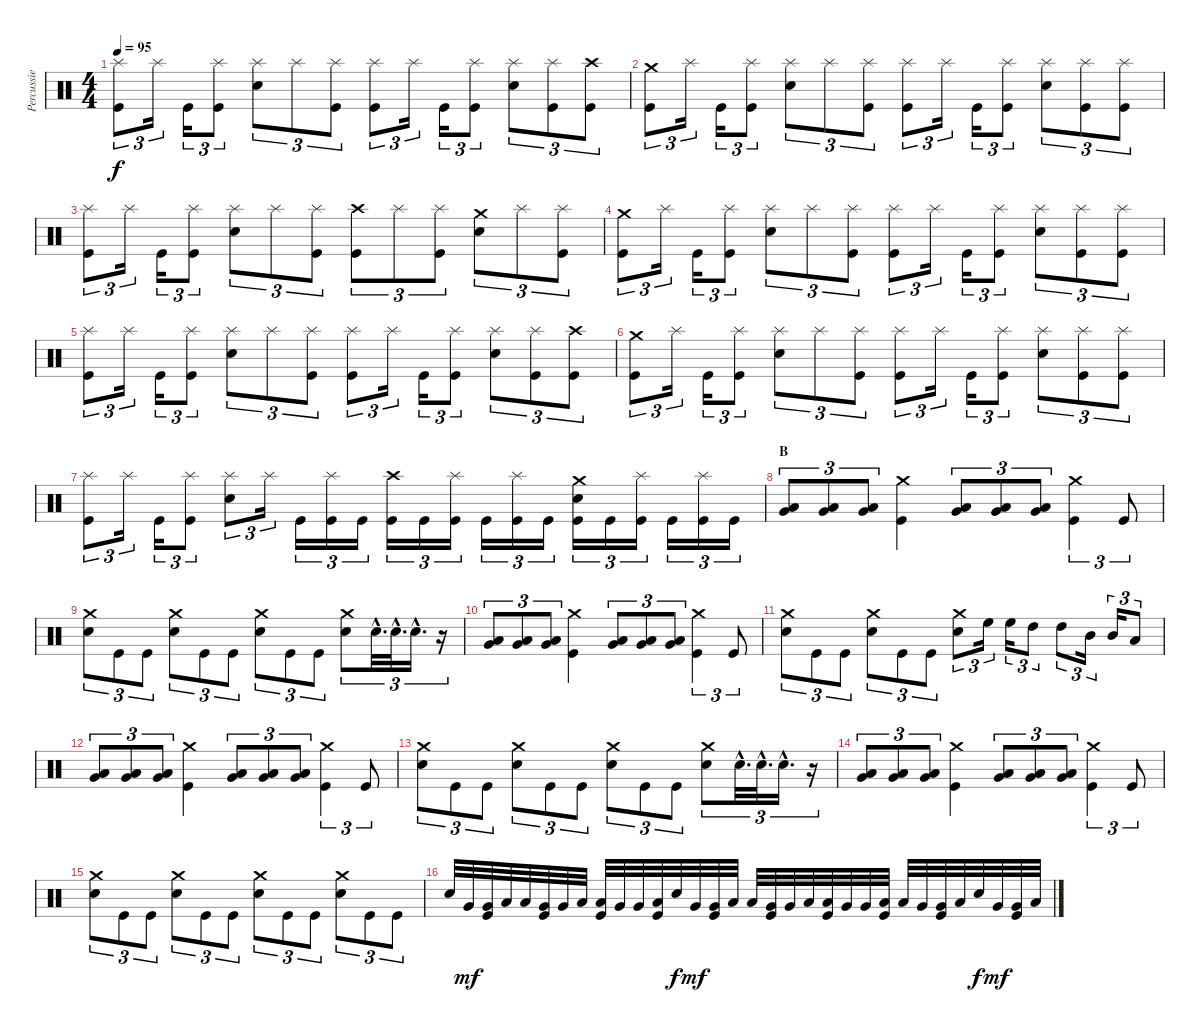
\track ("Percussie" "Percussie") {instrument percussion}
\staff {score}
\articulation defaults
\ts (4 4)
\tempo 95
\clef neutral
\ks c
("Splash (hit)" "Kick (hit)").8{tu (3 2) dy f} "Splash (hit)".16{tu (3 2)} "Kick (hit)".16{tu (3 2)} ("Splash (hit)" "Kick (hit)").8{tu (3 2)} ("Splash (hit)" "Electric Snare (hit)").8{tu (3 2)} "Splash (hit)".8{tu (3 2)} ("Splash (hit)" "Kick (hit)").8{tu (3 2)} ("Splash (hit)" "Kick (hit)").8{tu (3 2)} "Splash (hit)".16{tu (3 2)} "Kick (hit)".16{tu (3 2)} ("Splash (hit)" "Kick (hit)").8{tu (3 2)} ("Splash (hit)" "Electric Snare (hit)").8{tu (3 2)} ("Splash (hit)" "Kick (hit)").8{tu (3 2)} ("Crash high (hit)" "Kick (hit)").8{tu (3 2)} |
("Crash medium (hit)" "Kick (hit)").8{tu (3 2)} "Splash (hit)".16{tu (3 2)} "Kick (hit)".16{tu (3 2)} ("Splash (hit)" "Kick (hit)").8{tu (3 2)} ("Splash (hit)" "Electric Snare (hit)").8{tu (3 2)} "Splash (hit)".8{tu (3 2)} ("Splash (hit)" "Kick (hit)").8{tu (3 2)} ("Splash (hit)" "Kick (hit)").8{tu (3 2)} "Splash (hit)".16{tu (3 2)} "Kick (hit)".16{tu (3 2)} ("Splash (hit)" "Kick (hit)").8{tu (3 2)} ("Splash (hit)" "Electric Snare (hit)").8{tu (3 2)} ("Splash (hit)" "Kick (hit)").8{tu (3 2)} ("Splash (hit)" "Kick (hit)").8{tu (3 2)} |
("Splash (hit)" "Kick (hit)").8{tu (3 2)} "Splash (hit)".16{tu (3 2)} "Kick (hit)".16{tu (3 2)} ("Splash (hit)" "Kick (hit)").8{tu (3 2)} ("Splash (hit)" "Electric Snare (hit)").8{tu (3 2)} "Splash (hit)".8{tu (3 2)} ("Splash (hit)" "Kick (hit)").8{tu (3 2)} ("Crash high (hit)" "Kick (hit)").8{tu (3 2)} "Splash (hit)".8{tu (3 2)} ("Splash (hit)" "Kick (hit)").8{tu (3 2)} ("Crash medium (hit)" "Electric Snare (hit)").8{tu (3 2)} "Splash (hit)".8{tu (3 2)} ("Splash (hit)" "Kick (hit)").8{tu (3 2)} |
("Crash medium (hit)" "Kick (hit)").8{tu (3 2)} "Splash (hit)".16{tu (3 2)} "Kick (hit)".16{tu (3 2)} ("Splash (hit)" "Kick (hit)").8{tu (3 2)} ("Splash (hit)" "Electric Snare (hit)").8{tu (3 2)} "Splash (hit)".8{tu (3 2)} ("Splash (hit)" "Kick (hit)").8{tu (3 2)} ("Splash (hit)" "Kick (hit)").8{tu (3 2)} "Splash (hit)".16{tu (3 2)} "Kick (hit)".16{tu (3 2)} ("Splash (hit)" "Kick (hit)").8{tu (3 2)} ("Splash (hit)" "Electric Snare (hit)").8{tu (3 2)} ("Splash (hit)" "Kick (hit)").8{tu (3 2)} ("Splash (hit)" "Kick (hit)").8{tu (3 2)} |
("Splash (hit)" "Kick (hit)").8{tu (3 2)} "Splash (hit)".16{tu (3 2)} "Kick (hit)".16{tu (3 2)} ("Splash (hit)" "Kick (hit)").8{tu (3 2)} ("Splash (hit)" "Electric Snare (hit)").8{tu (3 2)} "Splash (hit)".8{tu (3 2)} ("Splash (hit)" "Kick (hit)").8{tu (3 2)} ("Splash (hit)" "Kick (hit)").8{tu (3 2)} "Splash (hit)".16{tu (3 2)} "Kick (hit)".16{tu (3 2)} ("Splash (hit)" "Kick (hit)").8{tu (3 2)} ("Splash (hit)" "Electric Snare (hit)").8{tu (3 2)} ("Splash (hit)" "Kick (hit)").8{tu (3 2)} ("Crash high (hit)" "Kick (hit)").8{tu (3 2)} |
("Crash medium (hit)" "Kick (hit)").8{tu (3 2)} "Splash (hit)".16{tu (3 2)} "Kick (hit)".16{tu (3 2)} ("Splash (hit)" "Kick (hit)").8{tu (3 2)} ("Splash (hit)" "Electric Snare (hit)").8{tu (3 2)} "Splash (hit)".8{tu (3 2)} ("Splash (hit)" "Kick (hit)").8{tu (3 2)} ("Splash (hit)" "Kick (hit)").8{tu (3 2)} "Splash (hit)".16{tu (3 2)} "Kick (hit)".16{tu (3 2)} ("Splash (hit)" "Kick (hit)").8{tu (3 2)} ("Splash (hit)" "Electric Snare (hit)").8{tu (3 2)} ("Splash (hit)" "Kick (hit)").8{tu (3 2)} ("Splash (hit)" "Kick (hit)").8{tu (3 2)} |
("Splash (hit)" "Kick (hit)").8{tu (3 2)} "Splash (hit)".16{tu (3 2)} "Kick (hit)".16{tu (3 2)} ("Splash (hit)" "Kick (hit)").8{tu (3 2)} ("Splash (hit)" "Electric Snare (hit)").8{tu (3 2)} "Splash (hit)".16{tu (3 2)} "Kick (hit)".16{tu (3 2)} ("Splash (hit)" "Kick (hit)").16{tu (3 2)} "Kick (hit)".16{tu (3 2)} ("Crash high (hit)" "Kick (hit)").16{tu (3 2)} "Kick (hit)".16{tu (3 2)} ("Splash (hit)" "Kick (hit)").16{tu (3 2)} "Kick (hit)".16{tu (3 2)} ("Splash (hit)" "Kick (hit)").16{tu (3 2)} "Kick (hit)".16{tu (3 2)} ("Crash medium (hit)" "Electric Snare (hit)" "Kick (hit)").16{tu (3 2)} "Kick (hit)".16{tu (3 2)} ("Splash (hit)" "Kick (hit)").16{tu (3 2)} "Kick (hit)".16{tu (3 2)} ("Splash (hit)" "Kick (hit)").16{tu (3 2)} "Kick (hit)".16{tu (3 2)} |
\section ("" "B")
("Very Low Tom (hit)" "Low Floor Tom (hit)").8{tu (3 2)} ("Very Low Tom (hit)" "Low Floor Tom (hit)").8{tu (3 2)} ("Very Low Tom (hit)" "Low Floor Tom (hit)").8{tu (3 2)} ("Crash medium (hit)" "Kick (hit)").4 ("Very Low Tom (hit)" "Low Floor Tom (hit)").8{tu (3 2)} ("Very Low Tom (hit)" "Low Floor Tom (hit)").8{tu (3 2)} ("Very Low Tom (hit)" "Low Floor Tom (hit)").8{tu (3 2)} ("Crash medium (hit)" "Kick (hit)").4{tu (3 2)} "Kick (hit)".8{tu (3 2)} |
("Crash medium (hit)" "Electric Snare (hit)").8{tu (3 2)} "Kick (hit)".8{tu (3 2)} "Kick (hit)".8{tu (3 2)} ("Crash medium (hit)" "Electric Snare (hit)").8{tu (3 2)} "Kick (hit)".8{tu (3 2)} "Kick (hit)".8{tu (3 2)} ("Crash medium (hit)" "Electric Snare (hit)").8{tu (3 2)} "Kick (hit)".8{tu (3 2)} "Kick (hit)".8{tu (3 2)} ("Crash medium (hit)" "Electric Snare (hit)").8{tu (3 2)} "Electric Snare (hit)"{hac}.32{d tu (3 2)} "Electric Snare (hit)"{hac}.32{d tu (3 2)} "Electric Snare (hit)"{hac}.16{d tu (3 2)} r.16{tu (3 2)} |
("Very Low Tom (hit)" "Low Floor Tom (hit)").8{tu (3 2)} ("Very Low Tom (hit)" "Low Floor Tom (hit)").8{tu (3 2)} ("Very Low Tom (hit)" "Low Floor Tom (hit)").8{tu (3 2)} ("Crash medium (hit)" "Kick (hit)").4 ("Very Low Tom (hit)" "Low Floor Tom (hit)").8{tu (3 2)} ("Very Low Tom (hit)" "Low Floor Tom (hit)").8{tu (3 2)} ("Very Low Tom (hit)" "Low Floor Tom (hit)").8{tu (3 2)} ("Crash medium (hit)" "Kick (hit)").4{tu (3 2)} "Kick (hit)".8{tu (3 2)} |
("Crash medium (hit)" "Electric Snare (hit)").8{tu (3 2)} "Kick (hit)".8{tu (3 2)} "Kick (hit)".8{tu (3 2)} ("Crash medium (hit)" "Electric Snare (hit)").8{tu (3 2)} "Kick (hit)".8{tu (3 2)} "Kick (hit)".8{tu (3 2)} ("Crash medium (hit)" "Electric Snare (hit)").8{tu (3 2)} "High Floor Tom (hit)".16{tu (3 2)} "High Floor Tom (hit)".16{tu (3 2)} "High Tom (hit)".8{tu (3 2)} "High Tom (hit)".8{tu (3 2)} "Mid Tom (hit)".16{tu (3 2)} "Mid Tom (hit)".16{tu (3 2)} "Low Tom (hit)".8{tu (3 2)} |
("Very Low Tom (hit)" "Low Floor Tom (hit)").8{tu (3 2)} ("Very Low Tom (hit)" "Low Floor Tom (hit)").8{tu (3 2)} ("Very Low Tom (hit)" "Low Floor Tom (hit)").8{tu (3 2)} ("Crash medium (hit)" "Kick (hit)").4 ("Very Low Tom (hit)" "Low Floor Tom (hit)").8{tu (3 2)} ("Very Low Tom (hit)" "Low Floor Tom (hit)").8{tu (3 2)} ("Very Low Tom (hit)" "Low Floor Tom (hit)").8{tu (3 2)} ("Crash medium (hit)" "Kick (hit)").4{tu (3 2)} "Kick (hit)".8{tu (3 2)} |
("Crash medium (hit)" "Electric Snare (hit)").8{tu (3 2)} "Kick (hit)".8{tu (3 2)} "Kick (hit)".8{tu (3 2)} ("Crash medium (hit)" "Electric Snare (hit)").8{tu (3 2)} "Kick (hit)".8{tu (3 2)} "Kick (hit)".8{tu (3 2)} ("Crash medium (hit)" "Electric Snare (hit)").8{tu (3 2)} "Kick (hit)".8{tu (3 2)} "Kick (hit)".8{tu (3 2)} ("Crash medium (hit)" "Electric Snare (hit)").8{tu (3 2)} "Electric Snare (hit)"{hac}.32{d tu (3 2)} "Electric Snare (hit)"{hac}.32{d tu (3 2)} "Electric Snare (hit)"{hac}.16{d tu (3 2)} r.16{tu (3 2)} |
("Very Low Tom (hit)" "Low Floor Tom (hit)").8{tu (3 2)} ("Very Low Tom (hit)" "Low Floor Tom (hit)").8{tu (3 2)} ("Very Low Tom (hit)" "Low Floor Tom (hit)").8{tu (3 2)} ("Crash medium (hit)" "Kick (hit)").4 ("Very Low Tom (hit)" "Low Floor Tom (hit)").8{tu (3 2)} ("Very Low Tom (hit)" "Low Floor Tom (hit)").8{tu (3 2)} ("Very Low Tom (hit)" "Low Floor Tom (hit)").8{tu (3 2)} ("Crash medium (hit)" "Kick (hit)").4{tu (3 2)} "Kick (hit)".8{tu (3 2)} |
("Crash medium (hit)" "Electric Snare (hit)").8{tu (3 2)} "Kick (hit)".8{tu (3 2)} "Kick (hit)".8{tu (3 2)} ("Crash medium (hit)" "Electric Snare (hit)").8{tu (3 2)} "Kick (hit)".8{tu (3 2)} "Kick (hit)".8{tu (3 2)} ("Crash medium (hit)" "Electric Snare (hit)").8{tu (3 2)} "Kick (hit)".8{tu (3 2)} "Kick (hit)".8{tu (3 2)} ("Crash medium (hit)" "Electric Snare (hit)").8{tu (3 2)} "Kick (hit)".8{tu (3 2)} "Kick (hit)".8{tu (3 2)} |
"Electric Snare (hit)"{tr (40 64)}.32 "Very Low Tom (hit)".32{dy mf} ("Kick (hit)" "Very Low Tom (hit)").32 "Low Floor Tom (hit)".32 "Low Floor Tom (hit)".32 ("Kick (hit)" "Very Low Tom (hit)").32 "Very Low Tom (hit)".32 "Low Floor Tom (hit)".32 ("Kick (hit)" "Low Floor Tom (hit)").32 "Very Low Tom (hit)".32 "Very Low Tom (hit)".32 ("Kick (hit)" "Low Floor Tom (hit)").32 "Electric Snare (hit)"{tr (40 64)}.32{dy f} "Very Low Tom (hit)".32{dy mf} ("Kick (hit)" "Very Low Tom (hit)").32 "Low Floor Tom (hit)".32 "Low Floor Tom (hit)".32 ("Kick (hit)" "Very Low Tom (hit)").32 "Very Low Tom (hit)".32 "Low Floor Tom (hit)".32 ("Kick (hit)" "Low Floor Tom (hit)").32 "Very Low Tom (hit)".32 "Very Low Tom (hit)".32 ("Kick (hit)" "Low Floor Tom (hit)").32 "Low Floor Tom (hit)".32 "Very Low Tom (hit)".32 ("Kick (hit)" "Very Low Tom (hit)").32 "Low Floor Tom (hit)".32 "Electric Snare (hit)"{tr (40 64)}.32{dy f} "Very Low Tom (hit)".32{dy mf} ("Kick (hit)" "Very Low Tom (hit)").32 "Low Floor Tom (hit)".32
